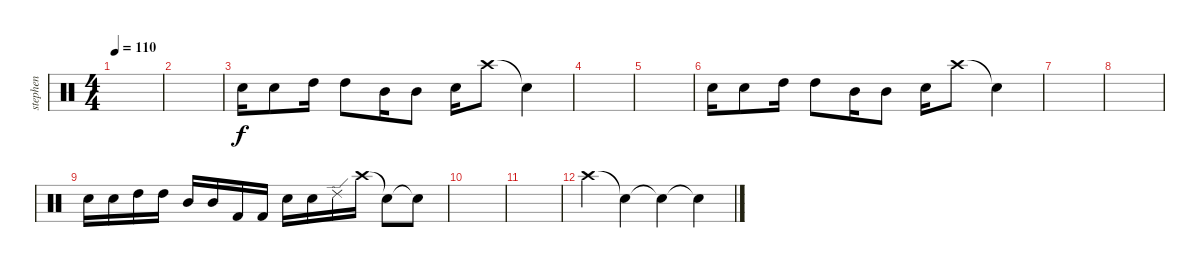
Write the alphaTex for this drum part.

\track ("stephen" "stephen") {instrument percussion}
\staff {score}
\articulation defaults
\ts (4 4)
\tempo 110
\clef neutral
\ks c
|
|
"Snare (hit) 2".16 "Snare (hit) 2".8 "High Tom (hit)".16 "High Tom (hit)".8 "Mid Tom (hit)".16 "Mid Tom (hit)".8 "Snare (hit) 2".16 "Crash high (hit)".8 "Snare (hit)"{t}.4 |
|
|
"Snare (hit) 2".16 "Snare (hit) 2".8 "High Tom (hit)".16 "High Tom (hit)".8 "Mid Tom (hit)".16 "Mid Tom (hit)".8 "Snare (hit) 2".16 "Crash high (hit)".8 "Snare (hit)"{t}.4 |
|
|
"Snare (hit) 2".16 "Snare (hit) 2".16 "High Tom (hit)".16 "High Tom (hit)".16 "Mid Tom (hit)".16 "Mid Tom (hit)".16 "Kick (hit) 2".16 "Kick (hit) 2".16 "Snare (hit) 2".16 "Snare (hit) 2".16 "Ride (edge) 2".16 "Crash high (hit)".16 "Snare (hit)"{t}.8 "Snare (hit)"{t}.8 |
|
|
"Crash high (hit)".4 "Snare (hit)"{t}.4 "Snare (hit)"{t}.4 "Snare (hit)"{t}.4
